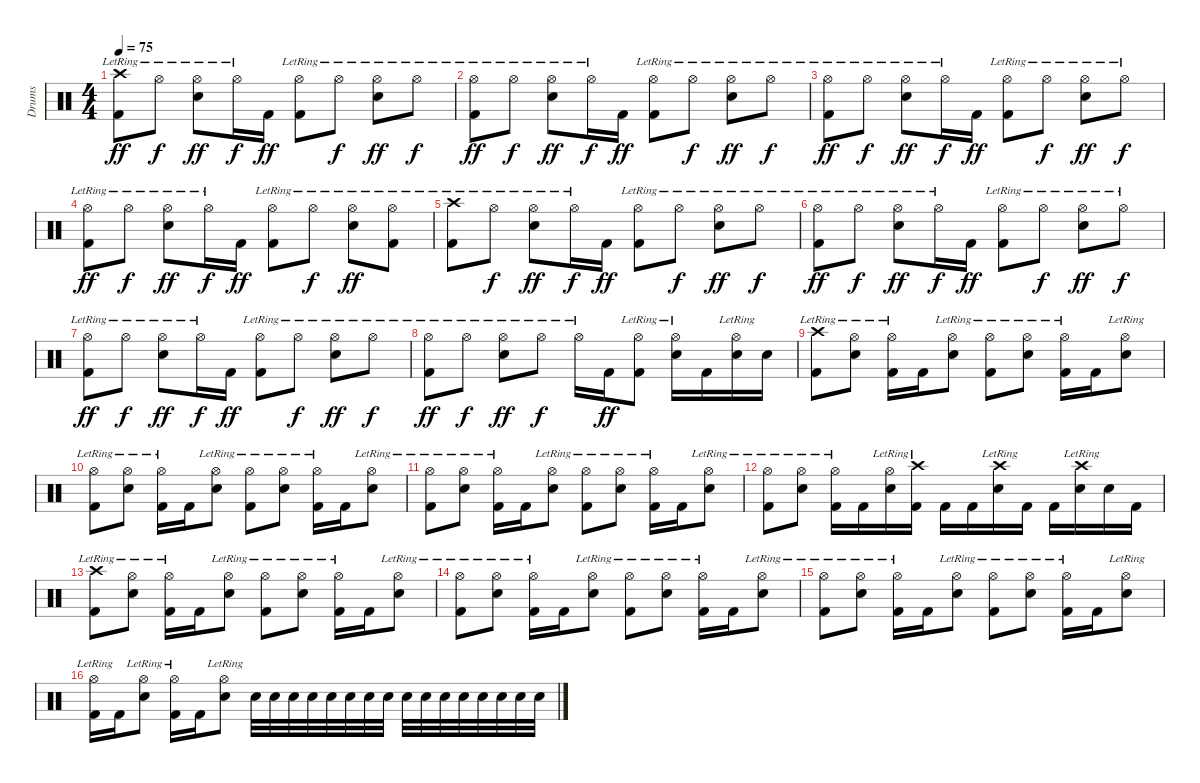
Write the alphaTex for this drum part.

\track ("Drums" "Drums") {instrument percussion}
\staff {score}
\articulation defaults
\ts (4 4)
\tempo 75
\clef neutral
\ks c
("Crash high (hit)"{lr} "Kick (hit) 2").8{dy ff} "Hi-Hat (open)"{lr}.8{dy f} ("Hi-Hat (open)"{lr} "Snare (hit) 2").8{dy ff} "Hi-Hat (open)"{lr}.16{dy f} "Kick (hit) 2".16{dy ff} ("Hi-Hat (open)"{lr} "Kick (hit) 2").8 "Hi-Hat (open)"{lr}.8{dy f} ("Hi-Hat (open)"{lr} "Snare (hit) 2").8{dy ff} "Hi-Hat (open)"{lr}.8{dy f} |
("Hi-Hat (open)"{lr} "Kick (hit) 2").8{dy ff} "Hi-Hat (open)"{lr}.8{dy f} ("Hi-Hat (open)"{lr} "Snare (hit) 2").8{dy ff} "Hi-Hat (open)"{lr}.16{dy f} "Kick (hit) 2".16{dy ff} ("Hi-Hat (open)"{lr} "Kick (hit) 2").8 "Hi-Hat (open)"{lr}.8{dy f} ("Hi-Hat (open)"{lr} "Snare (hit) 2").8{dy ff} "Hi-Hat (open)"{lr}.8{dy f} |
("Hi-Hat (open)"{lr} "Kick (hit) 2").8{dy ff} "Hi-Hat (open)"{lr}.8{dy f} ("Hi-Hat (open)"{lr} "Snare (hit) 2").8{dy ff} "Hi-Hat (open)"{lr}.16{dy f} "Kick (hit) 2".16{dy ff} ("Hi-Hat (open)"{lr} "Kick (hit) 2").8 "Hi-Hat (open)"{lr}.8{dy f} ("Hi-Hat (open)"{lr} "Snare (hit) 2").8{dy ff} "Hi-Hat (open)"{lr}.8{dy f} |
("Hi-Hat (open)"{lr} "Kick (hit) 2").8{dy ff} "Hi-Hat (open)"{lr}.8{dy f} ("Hi-Hat (open)"{lr} "Snare (hit) 2").8{dy ff} "Hi-Hat (open)"{lr}.16{dy f} "Kick (hit) 2".16{dy ff} ("Hi-Hat (open)"{lr} "Kick (hit) 2").8 "Hi-Hat (open)"{lr}.8{dy f} ("Hi-Hat (open)"{lr} "Snare (hit) 2").8{dy ff} ("Hi-Hat (open)"{lr} "Kick (hit) 2").8 |
("Crash high (hit)"{lr} "Kick (hit) 2").8 "Hi-Hat (open)"{lr}.8{dy f} ("Hi-Hat (open)"{lr} "Snare (hit) 2").8{dy ff} "Hi-Hat (open)"{lr}.16{dy f} "Kick (hit) 2".16{dy ff} ("Hi-Hat (open)"{lr} "Kick (hit) 2").8 "Hi-Hat (open)"{lr}.8{dy f} ("Hi-Hat (open)"{lr} "Snare (hit) 2").8{dy ff} "Hi-Hat (open)"{lr}.8{dy f} |
("Hi-Hat (open)"{lr} "Kick (hit) 2").8{dy ff} "Hi-Hat (open)"{lr}.8{dy f} ("Hi-Hat (open)"{lr} "Snare (hit) 2").8{dy ff} "Hi-Hat (open)"{lr}.16{dy f} "Kick (hit) 2".16{dy ff} ("Hi-Hat (open)"{lr} "Kick (hit) 2").8 "Hi-Hat (open)"{lr}.8{dy f} ("Hi-Hat (open)"{lr} "Snare (hit) 2").8{dy ff} "Hi-Hat (open)"{lr}.8{dy f} |
("Hi-Hat (open)"{lr} "Kick (hit) 2").8{dy ff} "Hi-Hat (open)"{lr}.8{dy f} ("Hi-Hat (open)"{lr} "Snare (hit) 2").8{dy ff} "Hi-Hat (open)"{lr}.16{dy f} "Kick (hit) 2".16{dy ff} ("Hi-Hat (open)"{lr} "Kick (hit) 2").8 "Hi-Hat (open)"{lr}.8{dy f} ("Hi-Hat (open)"{lr} "Snare (hit) 2").8{dy ff} "Hi-Hat (open)"{lr}.8{dy f} |
("Hi-Hat (open)"{lr} "Kick (hit) 2").8{dy ff} "Hi-Hat (open)"{lr}.8{dy f} ("Hi-Hat (open)"{lr} "Snare (hit) 2").8{dy ff} "Hi-Hat (open)"{lr}.8{dy f} "Hi-Hat (open)"{lr}.16 "Kick (hit) 2".16{dy ff} ("Hi-Hat (open)"{lr} "Kick (hit) 2").8 ("Hi-Hat (open)"{lr} "Snare (hit) 2").16 "Kick (hit) 2".16 ("Hi-Hat (open)"{lr} "Snare (hit) 2").16 "Snare (hit) 2".16 |
("Crash high (hit)"{lr} "Kick (hit) 2").8 ("Hi-Hat (open)"{lr} "Snare (hit) 2").8 ("Hi-Hat (open)"{lr} "Kick (hit) 2").16 "Kick (hit) 2".16 ("Hi-Hat (open)"{lr} "Snare (hit) 2").8 ("Hi-Hat (open)"{lr} "Kick (hit) 2").8 ("Hi-Hat (open)"{lr} "Snare (hit) 2").8 ("Hi-Hat (open)"{lr} "Kick (hit) 2").16 "Kick (hit) 2".16 ("Hi-Hat (open)"{lr} "Snare (hit) 2").8 |
("Hi-Hat (open)"{lr} "Kick (hit) 2").8 ("Hi-Hat (open)"{lr} "Snare (hit) 2").8 ("Hi-Hat (open)"{lr} "Kick (hit) 2").16 "Kick (hit) 2".16 ("Hi-Hat (open)"{lr} "Snare (hit) 2").8 ("Hi-Hat (open)"{lr} "Kick (hit) 2").8 ("Hi-Hat (open)"{lr} "Snare (hit) 2").8 ("Hi-Hat (open)"{lr} "Kick (hit) 2").16 "Kick (hit) 2".16 ("Hi-Hat (open)"{lr} "Snare (hit) 2").8 |
("Hi-Hat (open)"{lr} "Kick (hit) 2").8 ("Hi-Hat (open)"{lr} "Snare (hit) 2").8 ("Hi-Hat (open)"{lr} "Kick (hit) 2").16 "Kick (hit) 2".16 ("Hi-Hat (open)"{lr} "Snare (hit) 2").8 ("Hi-Hat (open)"{lr} "Kick (hit) 2").8 ("Hi-Hat (open)"{lr} "Snare (hit) 2").8 ("Hi-Hat (open)"{lr} "Kick (hit) 2").16 "Kick (hit) 2".16 ("Hi-Hat (open)"{lr} "Snare (hit) 2").8 |
("Hi-Hat (open)"{lr} "Kick (hit) 2").8 ("Hi-Hat (open)"{lr} "Snare (hit) 2").8 ("Hi-Hat (open)"{lr} "Kick (hit) 2").16 "Kick (hit) 2".16 ("Hi-Hat (open)"{lr} "Snare (hit) 2").16 ("Crash high (hit)"{lr} "Kick (hit) 2").16 "Kick (hit) 2".16 "Kick (hit) 2".16 ("Crash high (hit)"{lr} "Snare (hit) 2").16 "Kick (hit) 2".16 "Kick (hit) 2".16 ("Crash high (hit)"{lr} "Snare (hit) 2").16 "Snare (hit) 2".16 "Kick (hit) 2".16 |
("Crash high (hit)"{lr} "Kick (hit) 2").8 ("Hi-Hat (open)"{lr} "Snare (hit) 2").8 ("Hi-Hat (open)"{lr} "Kick (hit) 2").16 "Kick (hit) 2".16 ("Hi-Hat (open)"{lr} "Snare (hit) 2").8 ("Hi-Hat (open)"{lr} "Kick (hit) 2").8 ("Hi-Hat (open)"{lr} "Snare (hit) 2").8 ("Hi-Hat (open)"{lr} "Kick (hit) 2").16 "Kick (hit) 2".16 ("Hi-Hat (open)"{lr} "Snare (hit) 2").8 |
("Hi-Hat (open)"{lr} "Kick (hit) 2").8 ("Hi-Hat (open)"{lr} "Snare (hit) 2").8 ("Hi-Hat (open)"{lr} "Kick (hit) 2").16 "Kick (hit) 2".16 ("Hi-Hat (open)"{lr} "Snare (hit) 2").8 ("Hi-Hat (open)"{lr} "Kick (hit) 2").8 ("Hi-Hat (open)"{lr} "Snare (hit) 2").8 ("Hi-Hat (open)"{lr} "Kick (hit) 2").16 "Kick (hit) 2".16 ("Hi-Hat (open)"{lr} "Snare (hit) 2").8 |
("Hi-Hat (open)"{lr} "Kick (hit) 2").8 ("Hi-Hat (open)"{lr} "Snare (hit) 2").8 ("Hi-Hat (open)"{lr} "Kick (hit) 2").16 "Kick (hit) 2".16 ("Hi-Hat (open)"{lr} "Snare (hit) 2").8 ("Hi-Hat (open)"{lr} "Kick (hit) 2").8 ("Hi-Hat (open)"{lr} "Snare (hit) 2").8 ("Hi-Hat (open)"{lr} "Kick (hit) 2").16 "Kick (hit) 2".16 ("Hi-Hat (open)"{lr} "Snare (hit) 2").8 |
("Hi-Hat (open)"{lr} "Kick (hit) 2").16 "Kick (hit) 2".16 ("Hi-Hat (open)"{lr} "Snare (hit) 2").8 ("Hi-Hat (open)"{lr} "Kick (hit) 2").16 "Kick (hit) 2".16 ("Hi-Hat (open)"{lr} "Snare (hit) 2").8 "Snare (hit) 2".32 "Snare (hit) 2".32 "Snare (hit) 2".32 "Snare (hit) 2".32 "Snare (hit) 2".32 "Snare (hit) 2".32 "Snare (hit) 2".32 "Snare (hit) 2".32 "Snare (hit) 2".32 "Snare (hit) 2".32 "Snare (hit) 2".32 "Snare (hit) 2".32 "Snare (hit) 2".32 "Snare (hit) 2".32 "Snare (hit) 2".32 "Snare (hit) 2".32
